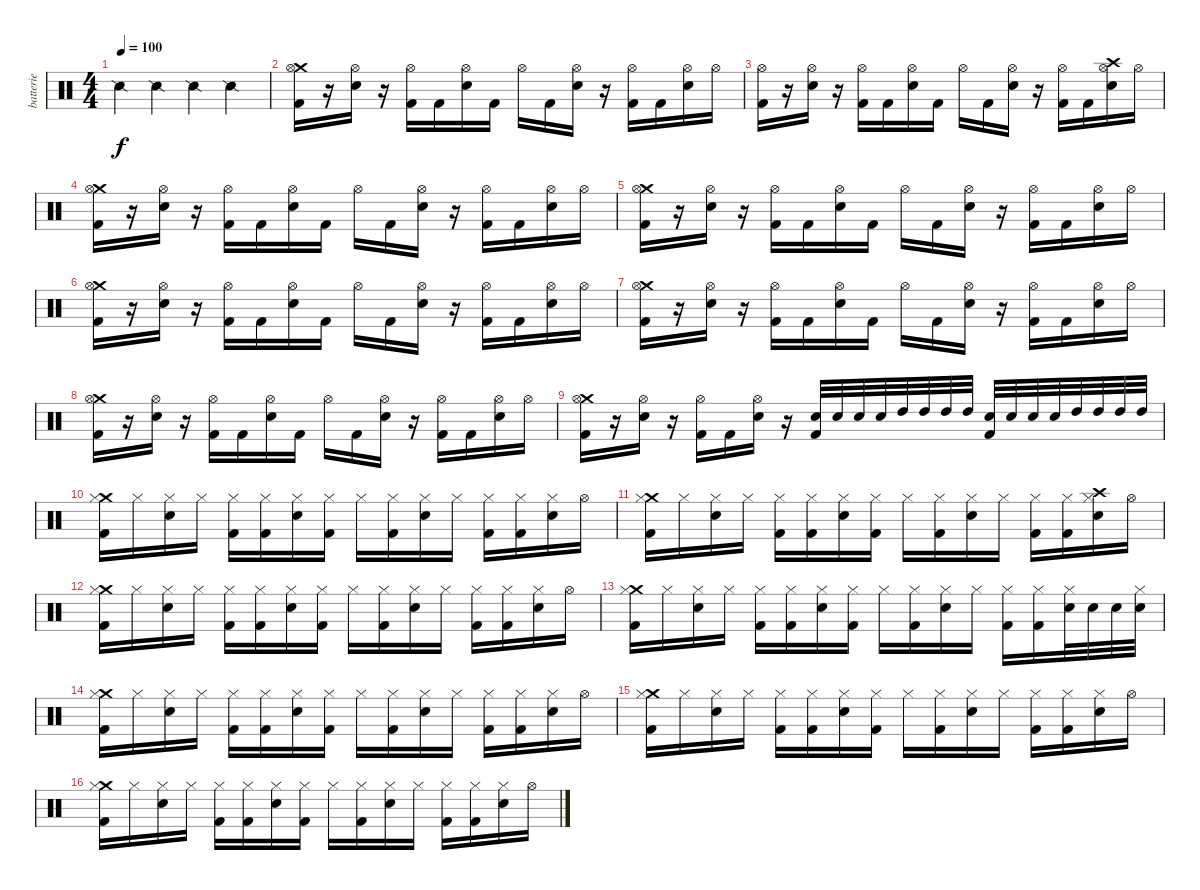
\track ("batterie" "batterie") {instrument percussion}
\staff {score}
\articulation defaults
\ts (4 4)
\tempo 100
\clef neutral
\ks c "Snare (side stick) 2".4{dy f} "Snare (side stick) 2".4 "Snare (side stick) 2".4 "Snare (side stick) 2".4
|
("Crash medium (hit)" "Hi-Hat (open)" "Kick (hit) 2").16 r.16 ("Hi-Hat (open)" "Electric Snare (hit)").16 r.16 ("Hi-Hat (open)" "Kick (hit) 2").16 "Kick (hit) 2".16 ("Hi-Hat (open)" "Electric Snare (hit)").16 "Kick (hit) 2".16 "Hi-Hat (open)".16 "Kick (hit) 2".16 ("Hi-Hat (open)" "Electric Snare (hit)").16 r.16 ("Hi-Hat (open)" "Kick (hit) 2").16 "Kick (hit) 2".16 ("Hi-Hat (open)" "Electric Snare (hit)").16 "Hi-Hat (open)".16 |
("Hi-Hat (open)" "Kick (hit) 2").16 r.16 ("Hi-Hat (open)" "Electric Snare (hit)").16 r.16 ("Hi-Hat (open)" "Kick (hit) 2").16 "Kick (hit) 2".16 ("Hi-Hat (open)" "Electric Snare (hit)").16 "Kick (hit) 2".16 "Hi-Hat (open)".16 "Kick (hit) 2".16 ("Hi-Hat (open)" "Electric Snare (hit)").16 r.16 ("Hi-Hat (open)" "Kick (hit) 2").16 "Kick (hit) 2".16 ("Crash high (hit)" "Hi-Hat (open)" "Electric Snare (hit)").16 "Hi-Hat (open)".16 |
("Crash medium (hit)" "Hi-Hat (open)" "Kick (hit) 2").16 r.16 ("Hi-Hat (open)" "Electric Snare (hit)").16 r.16 ("Hi-Hat (open)" "Kick (hit) 2").16 "Kick (hit) 2".16 ("Hi-Hat (open)" "Electric Snare (hit)").16 "Kick (hit) 2".16 "Hi-Hat (open)".16 "Kick (hit) 2".16 ("Hi-Hat (open)" "Electric Snare (hit)").16 r.16 ("Hi-Hat (open)" "Kick (hit) 2").16 "Kick (hit) 2".16 ("Hi-Hat (open)" "Electric Snare (hit)").16 "Hi-Hat (open)".16 |
("Crash medium (hit)" "Hi-Hat (open)" "Kick (hit) 2").16 r.16 ("Hi-Hat (open)" "Electric Snare (hit)").16 r.16 ("Hi-Hat (open)" "Kick (hit) 2").16 "Kick (hit) 2".16 ("Hi-Hat (open)" "Electric Snare (hit)").16 "Kick (hit) 2".16 "Hi-Hat (open)".16 "Kick (hit) 2".16 ("Hi-Hat (open)" "Electric Snare (hit)").16 r.16 ("Hi-Hat (open)" "Kick (hit) 2").16 "Kick (hit) 2".16 ("Hi-Hat (open)" "Electric Snare (hit)").16 "Hi-Hat (open)".16 |
("Crash medium (hit)" "Hi-Hat (open)" "Kick (hit) 2").16 r.16 ("Hi-Hat (open)" "Electric Snare (hit)").16 r.16 ("Hi-Hat (open)" "Kick (hit) 2").16 "Kick (hit) 2".16 ("Hi-Hat (open)" "Electric Snare (hit)").16 "Kick (hit) 2".16 "Hi-Hat (open)".16 "Kick (hit) 2".16 ("Hi-Hat (open)" "Electric Snare (hit)").16 r.16 ("Hi-Hat (open)" "Kick (hit) 2").16 "Kick (hit) 2".16 ("Hi-Hat (open)" "Electric Snare (hit)").16 "Hi-Hat (open)".16 |
("Crash medium (hit)" "Hi-Hat (open)" "Kick (hit) 2").16 r.16 ("Hi-Hat (open)" "Electric Snare (hit)").16 r.16 ("Hi-Hat (open)" "Kick (hit) 2").16 "Kick (hit) 2".16 ("Hi-Hat (open)" "Electric Snare (hit)").16 "Kick (hit) 2".16 "Hi-Hat (open)".16 "Kick (hit) 2".16 ("Hi-Hat (open)" "Electric Snare (hit)").16 r.16 ("Hi-Hat (open)" "Kick (hit) 2").16 "Kick (hit) 2".16 ("Hi-Hat (open)" "Electric Snare (hit)").16 "Hi-Hat (open)".16 |
("Crash medium (hit)" "Hi-Hat (open)" "Kick (hit) 2").16 r.16 ("Hi-Hat (open)" "Electric Snare (hit)").16 r.16 ("Hi-Hat (open)" "Kick (hit) 2").16 "Kick (hit) 2".16 ("Hi-Hat (open)" "Electric Snare (hit)").16 "Kick (hit) 2".16 "Hi-Hat (open)".16 "Kick (hit) 2".16 ("Hi-Hat (open)" "Electric Snare (hit)").16 r.16 ("Hi-Hat (open)" "Kick (hit) 2").16 "Kick (hit) 2".16 ("Hi-Hat (open)" "Electric Snare (hit)").16 "Hi-Hat (open)".16 |
("Crash medium (hit)" "Hi-Hat (open)" "Kick (hit) 2").16 r.16 ("Hi-Hat (open)" "Electric Snare (hit)").16 r.16 ("Hi-Hat (open)" "Kick (hit) 2").16 "Kick (hit) 2".16 ("Hi-Hat (open)" "Electric Snare (hit)").16 r.16 ("Electric Snare (hit)" "Kick (hit) 2").32 "Electric Snare (hit)".32 "Electric Snare (hit)".32 "Electric Snare (hit)".32 "High Tom (hit)".32 "High Tom (hit)".32 "High Tom (hit)".32 "High Tom (hit)".32 ("Electric Snare (hit)" "Kick (hit) 2").32 "Electric Snare (hit)".32 "Electric Snare (hit)".32 "Electric Snare (hit)".32 "High Tom (hit)".32 "High Tom (hit)".32 "High Tom (hit)".32 "High Tom (hit)".32 |
("Crash medium (hit)" "Hi-Hat (closed)" "Kick (hit) 2").16 "Hi-Hat (closed)".16 ("Hi-Hat (closed)" "Electric Snare (hit)").16 "Hi-Hat (closed)".16 ("Hi-Hat (closed)" "Kick (hit) 2").16 ("Hi-Hat (closed)" "Kick (hit) 2").16 ("Hi-Hat (closed)" "Electric Snare (hit)").16 ("Hi-Hat (closed)" "Kick (hit) 2").16 "Hi-Hat (closed)".16 ("Hi-Hat (closed)" "Kick (hit) 2").16 ("Hi-Hat (closed)" "Electric Snare (hit)").16 "Hi-Hat (closed)".16 ("Hi-Hat (closed)" "Kick (hit) 2").16 ("Hi-Hat (closed)" "Kick (hit) 2").16 ("Hi-Hat (closed)" "Electric Snare (hit)").16 "Hi-Hat (open)".16 |
("Crash medium (hit)" "Hi-Hat (closed)" "Kick (hit) 2").16 "Hi-Hat (closed)".16 ("Hi-Hat (closed)" "Electric Snare (hit)").16 "Hi-Hat (closed)".16 ("Hi-Hat (closed)" "Kick (hit) 2").16 ("Hi-Hat (closed)" "Kick (hit) 2").16 ("Hi-Hat (closed)" "Electric Snare (hit)").16 ("Hi-Hat (closed)" "Kick (hit) 2").16 "Hi-Hat (closed)".16 ("Hi-Hat (closed)" "Kick (hit) 2").16 ("Hi-Hat (closed)" "Electric Snare (hit)").16 "Hi-Hat (closed)".16 ("Hi-Hat (closed)" "Kick (hit) 2").16 ("Hi-Hat (closed)" "Kick (hit) 2").16 ("Crash high (hit)" "Hi-Hat (closed)" "Electric Snare (hit)").16 "Hi-Hat (open)".16 |
("Crash medium (hit)" "Hi-Hat (closed)" "Kick (hit) 2").16 "Hi-Hat (closed)".16 ("Hi-Hat (closed)" "Electric Snare (hit)").16 "Hi-Hat (closed)".16 ("Hi-Hat (closed)" "Kick (hit) 2").16 ("Hi-Hat (closed)" "Kick (hit) 2").16 ("Hi-Hat (closed)" "Electric Snare (hit)").16 ("Hi-Hat (closed)" "Kick (hit) 2").16 "Hi-Hat (closed)".16 ("Hi-Hat (closed)" "Kick (hit) 2").16 ("Hi-Hat (closed)" "Electric Snare (hit)").16 "Hi-Hat (closed)".16 ("Hi-Hat (closed)" "Kick (hit) 2").16 ("Hi-Hat (closed)" "Kick (hit) 2").16 ("Hi-Hat (closed)" "Electric Snare (hit)").16 "Hi-Hat (open)".16 |
("Crash medium (hit)" "Hi-Hat (closed)" "Kick (hit) 2").16 "Hi-Hat (closed)".16 ("Hi-Hat (closed)" "Electric Snare (hit)").16 "Hi-Hat (closed)".16 ("Hi-Hat (closed)" "Kick (hit) 2").16 ("Hi-Hat (closed)" "Kick (hit) 2").16 ("Hi-Hat (closed)" "Electric Snare (hit)").16 ("Hi-Hat (closed)" "Kick (hit) 2").16 "Hi-Hat (closed)".16 ("Hi-Hat (closed)" "Kick (hit) 2").16 ("Hi-Hat (closed)" "Electric Snare (hit)").16 "Hi-Hat (closed)".16 ("Hi-Hat (closed)" "Kick (hit) 2").16 ("Hi-Hat (closed)" "Kick (hit) 2").16 ("Hi-Hat (closed)" "Electric Snare (hit)").32 "Electric Snare (hit)".32 "Electric Snare (hit)".32 ("Hi-Hat (closed)" "Electric Snare (hit)").32 |
("Crash medium (hit)" "Hi-Hat (closed)" "Kick (hit) 2").16 "Hi-Hat (closed)".16 ("Hi-Hat (closed)" "Electric Snare (hit)").16 "Hi-Hat (closed)".16 ("Hi-Hat (closed)" "Kick (hit) 2").16 ("Hi-Hat (closed)" "Kick (hit) 2").16 ("Hi-Hat (closed)" "Electric Snare (hit)").16 ("Hi-Hat (closed)" "Kick (hit) 2").16 "Hi-Hat (closed)".16 ("Hi-Hat (closed)" "Kick (hit) 2").16 ("Hi-Hat (closed)" "Electric Snare (hit)").16 "Hi-Hat (closed)".16 ("Hi-Hat (closed)" "Kick (hit) 2").16 ("Hi-Hat (closed)" "Kick (hit) 2").16 ("Hi-Hat (closed)" "Electric Snare (hit)").16 "Hi-Hat (open)".16 |
("Crash medium (hit)" "Hi-Hat (closed)" "Kick (hit) 2").16 "Hi-Hat (closed)".16 ("Hi-Hat (closed)" "Electric Snare (hit)").16 "Hi-Hat (closed)".16 ("Hi-Hat (closed)" "Kick (hit) 2").16 ("Hi-Hat (closed)" "Kick (hit) 2").16 ("Hi-Hat (closed)" "Electric Snare (hit)").16 ("Hi-Hat (closed)" "Kick (hit) 2").16 "Hi-Hat (closed)".16 ("Hi-Hat (closed)" "Kick (hit) 2").16 ("Hi-Hat (closed)" "Electric Snare (hit)").16 "Hi-Hat (closed)".16 ("Hi-Hat (closed)" "Kick (hit) 2").16 ("Hi-Hat (closed)" "Kick (hit) 2").16 ("Hi-Hat (closed)" "Electric Snare (hit)").16 "Hi-Hat (open)".16 |
("Crash medium (hit)" "Hi-Hat (closed)" "Kick (hit) 2").16 "Hi-Hat (closed)".16 ("Hi-Hat (closed)" "Electric Snare (hit)").16 "Hi-Hat (closed)".16 ("Hi-Hat (closed)" "Kick (hit) 2").16 ("Hi-Hat (closed)" "Kick (hit) 2").16 ("Hi-Hat (closed)" "Electric Snare (hit)").16 ("Hi-Hat (closed)" "Kick (hit) 2").16 "Hi-Hat (closed)".16 ("Hi-Hat (closed)" "Kick (hit) 2").16 ("Hi-Hat (closed)" "Electric Snare (hit)").16 "Hi-Hat (closed)".16 ("Hi-Hat (closed)" "Kick (hit) 2").16 ("Hi-Hat (closed)" "Kick (hit) 2").16 ("Hi-Hat (closed)" "Electric Snare (hit)").16 "Hi-Hat (open)".16
